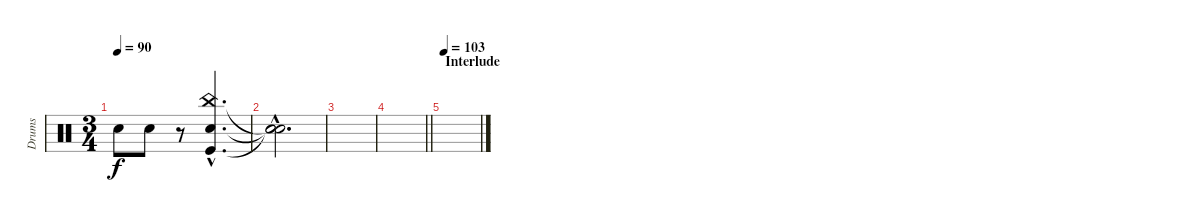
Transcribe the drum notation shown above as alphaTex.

\track ("Drums" "Drums") {instrument percussion}
\staff {score}
\articulation defaults
\ts (3 4)
\tempo 90
\clef neutral
\ks c "Snare (hit) 2".8{dy f} "Snare (hit) 2".8
r.8 ("China (hit)"{hac} "Snare (hit) 2"{hac} "Kick (hit)"{hac}).4{d} |
("Snare (hit)"{hac t} "Snare (hit)"{hac t} "Snare (hit)"{hac t}).2{d} |
|
\barLineRight lightlight
|
\section ("" "Interlude")
\tempo 103
